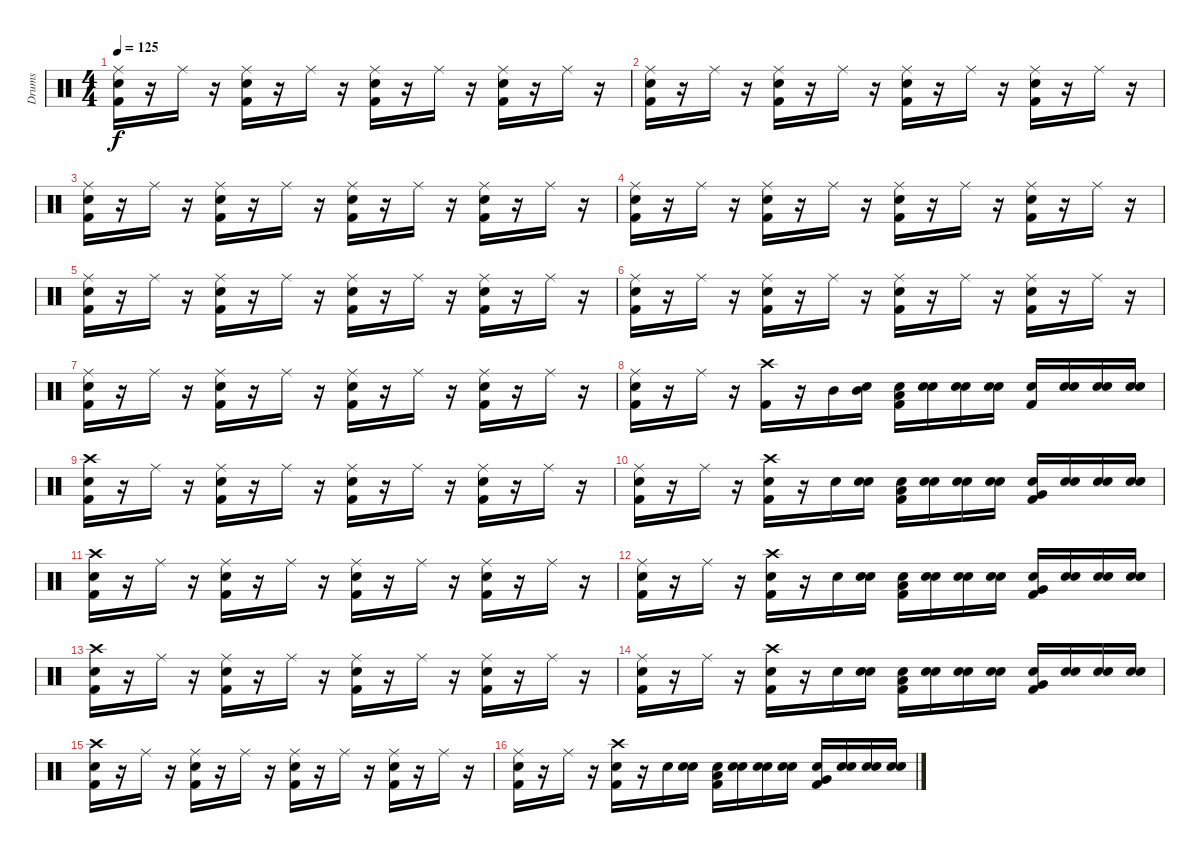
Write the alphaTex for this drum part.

\track ("Drums" "Drums") {instrument percussion}
\staff {score}
\articulation defaults
\ts (4 4)
\tempo 125
\clef neutral
\ks c
("Ride (middle)" "Snare (hit) 2" "Kick (hit) 2").16{dy f} r.16 "Ride (middle)".16 r.16 ("Ride (middle)" "Snare (hit) 2" "Kick (hit) 2").16 r.16 "Ride (middle)".16 r.16 ("Ride (middle)" "Snare (hit) 2" "Kick (hit) 2").16 r.16 "Ride (middle)".16 r.16 ("Ride (middle)" "Snare (hit) 2" "Kick (hit) 2").16 r.16 "Ride (middle)".16 r.16 |
("Ride (middle)" "Snare (hit) 2" "Kick (hit) 2").16 r.16 "Ride (middle)".16 r.16 ("Ride (middle)" "Snare (hit) 2" "Kick (hit) 2").16 r.16 "Ride (middle)".16 r.16 ("Ride (middle)" "Snare (hit) 2" "Kick (hit) 2").16 r.16 "Ride (middle)".16 r.16 ("Ride (middle)" "Snare (hit) 2" "Kick (hit) 2").16 r.16 "Ride (middle)".16 r.16 |
("Ride (middle)" "Snare (hit) 2" "Kick (hit) 2").16 r.16 "Ride (middle)".16 r.16 ("Ride (middle)" "Snare (hit) 2" "Kick (hit) 2").16 r.16 "Ride (middle)".16 r.16 ("Ride (middle)" "Snare (hit) 2" "Kick (hit) 2").16 r.16 "Ride (middle)".16 r.16 ("Ride (middle)" "Snare (hit) 2" "Kick (hit) 2").16 r.16 "Ride (middle)".16 r.16 |
("Ride (middle)" "Snare (hit) 2" "Kick (hit) 2").16 r.16 "Ride (middle)".16 r.16 ("Ride (middle)" "Snare (hit) 2" "Kick (hit) 2").16 r.16 "Ride (middle)".16 r.16 ("Ride (middle)" "Snare (hit) 2" "Kick (hit) 2").16 r.16 "Ride (middle)".16 r.16 ("Ride (middle)" "Snare (hit) 2" "Kick (hit) 2").16 r.16 "Ride (middle)".16 r.16 |
("Ride (middle)" "Snare (hit) 2" "Kick (hit) 2").16 r.16 "Ride (middle)".16 r.16 ("Ride (middle)" "Snare (hit) 2" "Kick (hit) 2").16 r.16 "Ride (middle)".16 r.16 ("Ride (middle)" "Snare (hit) 2" "Kick (hit) 2").16 r.16 "Ride (middle)".16 r.16 ("Ride (middle)" "Snare (hit) 2" "Kick (hit) 2").16 r.16 "Ride (middle)".16 r.16 |
("Ride (middle)" "Snare (hit) 2" "Kick (hit) 2").16 r.16 "Ride (middle)".16 r.16 ("Ride (middle)" "Snare (hit) 2" "Kick (hit) 2").16 r.16 "Ride (middle)".16 r.16 ("Ride (middle)" "Snare (hit) 2" "Kick (hit) 2").16 r.16 "Ride (middle)".16 r.16 ("Ride (middle)" "Snare (hit) 2" "Kick (hit) 2").16 r.16 "Ride (middle)".16 r.16 |
("Ride (middle)" "Snare (hit) 2" "Kick (hit) 2").16 r.16 "Ride (middle)".16 r.16 ("Ride (middle)" "Snare (hit) 2" "Kick (hit) 2").16 r.16 "Ride (middle)".16 r.16 ("Ride (middle)" "Snare (hit) 2" "Kick (hit) 2").16 r.16 "Ride (middle)".16 r.16 ("Ride (middle)" "Snare (hit) 2" "Kick (hit) 2").16 r.16 "Ride (middle)".16 r.16 |
("Ride (middle)" "Snare (hit) 2" "Kick (hit) 2").16 r.16 "Ride (middle)".16 r.16 ("Kick (hit) 2" "Crash high (hit)").16 r.16 "Mid Tom (hit)".16 ("Snare (hit)" "Mid Tom (hit)").16 ("Snare (hit)" "Kick (hit) 2" "Low Tom (hit)").16 ("Snare (hit)" "Snare (hit) 2").16 ("Snare (hit)" "Snare (hit) 2").16 ("Snare (hit)" "Snare (hit) 2").16 ("Snare (hit)" "Kick (hit) 2").16 ("Snare (hit)" "Snare (hit) 2").16 ("Snare (hit)" "Snare (hit) 2").16 ("Snare (hit)" "Snare (hit) 2").16 |
("Snare (hit)" "Kick (hit) 2" "Crash high (hit)").16 r.16 "Ride (middle)".16 r.16 ("Ride (middle)" "Snare (hit) 2" "Kick (hit) 2").16 r.16 "Ride (middle)".16 r.16 ("Ride (middle)" "Snare (hit) 2" "Kick (hit) 2").16 r.16 "Ride (middle)".16 r.16 ("Ride (middle)" "Snare (hit) 2" "Kick (hit) 2").16 r.16 "Ride (middle)".16 r.16 |
("Ride (middle)" "Snare (hit) 2" "Kick (hit) 2").16 r.16 "Ride (middle)".16 r.16 ("Snare (hit) 2" "Kick (hit) 2" "Crash high (hit)").16 r.16 "Snare (hit) 2".16 ("Snare (hit)" "Snare (hit) 2").16 ("Snare (hit)" "Kick (hit) 2" "Low Tom (hit)").16 ("Snare (hit)" "Snare (hit) 2").16 ("Snare (hit)" "Snare (hit) 2").16 ("Snare (hit)" "Snare (hit) 2").16 ("Snare (hit)" "Kick (hit) 2" "Very Low Tom (hit)").16 ("Snare (hit)" "Snare (hit) 2").16 ("Snare (hit)" "Snare (hit) 2").16 ("Snare (hit)" "Snare (hit) 2").16 |
("Snare (hit)" "Kick (hit) 2" "Crash high (hit)").16 r.16 "Ride (middle)".16 r.16 ("Ride (middle)" "Snare (hit) 2" "Kick (hit) 2").16 r.16 "Ride (middle)".16 r.16 ("Ride (middle)" "Snare (hit) 2" "Kick (hit) 2").16 r.16 "Ride (middle)".16 r.16 ("Ride (middle)" "Snare (hit) 2" "Kick (hit) 2").16 r.16 "Ride (middle)".16 r.16 |
("Ride (middle)" "Snare (hit) 2" "Kick (hit) 2").16 r.16 "Ride (middle)".16 r.16 ("Snare (hit) 2" "Kick (hit) 2" "Crash high (hit)").16 r.16 "Snare (hit) 2".16 ("Snare (hit)" "Snare (hit) 2").16 ("Snare (hit)" "Kick (hit) 2" "Low Tom (hit)").16 ("Snare (hit)" "Snare (hit) 2").16 ("Snare (hit)" "Snare (hit) 2").16 ("Snare (hit)" "Snare (hit) 2").16 ("Snare (hit)" "Kick (hit) 2" "Very Low Tom (hit)").16 ("Snare (hit)" "Snare (hit) 2").16 ("Snare (hit)" "Snare (hit) 2").16 ("Snare (hit)" "Snare (hit) 2").16 |
("Snare (hit)" "Kick (hit) 2" "Crash high (hit)").16 r.16 "Ride (middle)".16 r.16 ("Ride (middle)" "Snare (hit) 2" "Kick (hit) 2").16 r.16 "Ride (middle)".16 r.16 ("Ride (middle)" "Snare (hit) 2" "Kick (hit) 2").16 r.16 "Ride (middle)".16 r.16 ("Ride (middle)" "Snare (hit) 2" "Kick (hit) 2").16 r.16 "Ride (middle)".16 r.16 |
("Ride (middle)" "Snare (hit) 2" "Kick (hit) 2").16 r.16 "Ride (middle)".16 r.16 ("Snare (hit) 2" "Kick (hit) 2" "Crash high (hit)").16 r.16 "Snare (hit) 2".16 ("Snare (hit)" "Snare (hit) 2").16 ("Snare (hit)" "Kick (hit) 2" "Low Tom (hit)").16 ("Snare (hit)" "Snare (hit) 2").16 ("Snare (hit)" "Snare (hit) 2").16 ("Snare (hit)" "Snare (hit) 2").16 ("Snare (hit)" "Kick (hit) 2" "Very Low Tom (hit)").16 ("Snare (hit)" "Snare (hit) 2").16 ("Snare (hit)" "Snare (hit) 2").16 ("Snare (hit)" "Snare (hit) 2").16 |
("Snare (hit)" "Kick (hit) 2" "Crash high (hit)").16 r.16 "Ride (middle)".16 r.16 ("Ride (middle)" "Snare (hit) 2" "Kick (hit) 2").16 r.16 "Ride (middle)".16 r.16 ("Ride (middle)" "Snare (hit) 2" "Kick (hit) 2").16 r.16 "Ride (middle)".16 r.16 ("Ride (middle)" "Snare (hit) 2" "Kick (hit) 2").16 r.16 "Ride (middle)".16 r.16 |
("Ride (middle)" "Snare (hit) 2" "Kick (hit) 2").16 r.16 "Ride (middle)".16 r.16 ("Snare (hit) 2" "Kick (hit) 2" "Crash high (hit)").16 r.16 "Snare (hit) 2".16 ("Snare (hit)" "Snare (hit) 2").16 ("Snare (hit)" "Kick (hit) 2" "Low Tom (hit)").16 ("Snare (hit)" "Snare (hit) 2").16 ("Snare (hit)" "Snare (hit) 2").16 ("Snare (hit)" "Snare (hit) 2").16 ("Snare (hit)" "Kick (hit) 2" "Very Low Tom (hit)").16 ("Snare (hit)" "Snare (hit) 2").16 ("Snare (hit)" "Snare (hit) 2").16 ("Snare (hit)" "Snare (hit) 2").16
